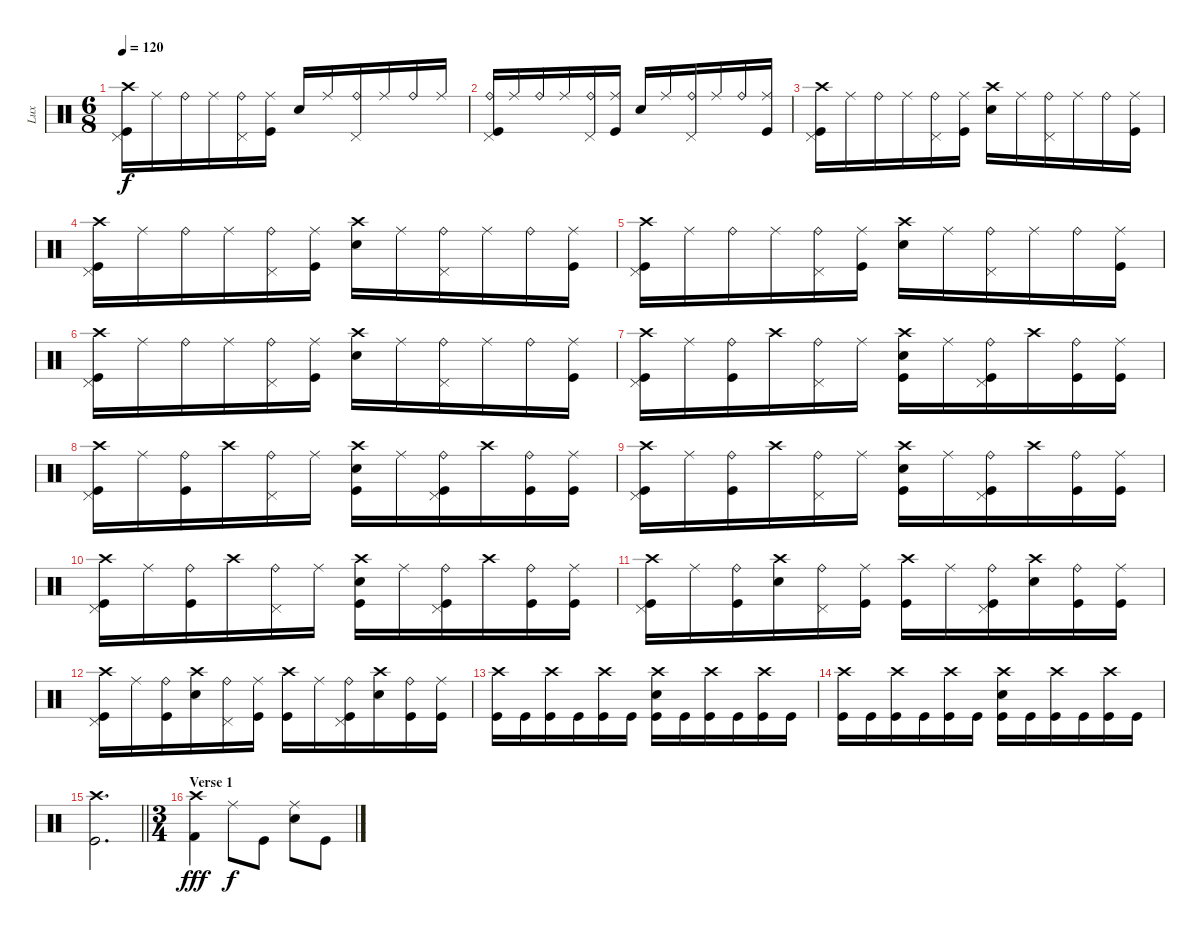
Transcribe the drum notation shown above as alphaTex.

\track ("Lux" "Lux") {instrument percussion}
\staff {score}
\articulation defaults
\ts (6 8)
\tempo 120
\clef neutral
\ks c
("Crash high (hit)" "Pedal Hi-Hat (hit)" "Kick (hit)").16{dy f} "Ride (middle)".16 "Ride (bell)".16 "Ride (middle)".16 ("Ride (bell)" "Pedal Hi-Hat (hit)").16 ("Ride (middle)" "Kick (hit)").16 "Snare (hit) 2".16 "Ride (middle)".16 ("Ride (bell)" "Pedal Hi-Hat (hit)").16 "Ride (middle)".16 "Ride (bell)".16 "Ride (middle)".16 |
("Ride (bell)" "Pedal Hi-Hat (hit)" "Kick (hit)").16 "Ride (middle)".16 "Ride (bell)".16 "Ride (middle)".16 ("Ride (bell)" "Pedal Hi-Hat (hit)").16 ("Ride (middle)" "Kick (hit)").16 "Snare (hit) 2".16 "Ride (middle)".16 ("Ride (bell)" "Pedal Hi-Hat (hit)").16 "Ride (middle)".16 "Ride (bell)".16 ("Ride (middle)" "Kick (hit)").16 |
("Crash high (hit)" "Pedal Hi-Hat (hit)" "Kick (hit)").16 "Ride (middle)".16 "Ride (bell)".16 "Ride (middle)".16 ("Ride (bell)" "Pedal Hi-Hat (hit)").16 ("Ride (middle)" "Kick (hit)").16 ("Crash high (hit)" "Snare (hit) 2").16 "Ride (middle)".16 ("Ride (bell)" "Pedal Hi-Hat (hit)").16 "Ride (middle)".16 "Ride (bell)".16 ("Ride (middle)" "Kick (hit)").16 |
("Crash high (hit)" "Pedal Hi-Hat (hit)" "Kick (hit)").16 "Ride (middle)".16 "Ride (bell)".16 "Ride (middle)".16 ("Ride (bell)" "Pedal Hi-Hat (hit)").16 ("Ride (middle)" "Kick (hit)").16 ("Crash high (hit)" "Snare (hit) 2").16 "Ride (middle)".16 ("Ride (bell)" "Pedal Hi-Hat (hit)").16 "Ride (middle)".16 "Ride (bell)".16 ("Ride (middle)" "Kick (hit)").16 |
("Crash high (hit)" "Pedal Hi-Hat (hit)" "Kick (hit)").16 "Ride (middle)".16 "Ride (bell)".16 "Ride (middle)".16 ("Ride (bell)" "Pedal Hi-Hat (hit)").16 ("Ride (middle)" "Kick (hit)").16 ("Crash high (hit)" "Snare (hit) 2").16 "Ride (middle)".16 ("Ride (bell)" "Pedal Hi-Hat (hit)").16 "Ride (middle)".16 "Ride (bell)".16 ("Ride (middle)" "Kick (hit)").16 |
("Crash high (hit)" "Pedal Hi-Hat (hit)" "Kick (hit)").16 "Ride (middle)".16 "Ride (bell)".16 "Ride (middle)".16 ("Ride (bell)" "Pedal Hi-Hat (hit)").16 ("Ride (middle)" "Kick (hit)").16 ("Crash high (hit)" "Snare (hit) 2").16 "Ride (middle)".16 ("Ride (bell)" "Pedal Hi-Hat (hit)").16 "Ride (middle)".16 "Ride (bell)".16 ("Ride (middle)" "Kick (hit)").16 |
("Crash high (hit)" "Pedal Hi-Hat (hit)" "Kick (hit)").16 "Ride (middle)".16 ("Ride (bell)" "Kick (hit)").16 "Crash high (hit)".16 ("Ride (bell)" "Pedal Hi-Hat (hit)").16 "Ride (middle)".16 ("Crash high (hit)" "Snare (hit) 2" "Kick (hit)").16 "Ride (middle)".16 ("Ride (bell)" "Pedal Hi-Hat (hit)" "Kick (hit)").16 "Crash high (hit)".16 ("Ride (bell)" "Kick (hit)").16 ("Ride (middle)" "Kick (hit)").16 |
("Crash high (hit)" "Pedal Hi-Hat (hit)" "Kick (hit)").16 "Ride (middle)".16 ("Ride (bell)" "Kick (hit)").16 "Crash high (hit)".16 ("Ride (bell)" "Pedal Hi-Hat (hit)").16 "Ride (middle)".16 ("Crash high (hit)" "Snare (hit) 2" "Kick (hit)").16 "Ride (middle)".16 ("Ride (bell)" "Pedal Hi-Hat (hit)" "Kick (hit)").16 "Crash high (hit)".16 ("Ride (bell)" "Kick (hit)").16 ("Ride (middle)" "Kick (hit)").16 |
("Crash high (hit)" "Pedal Hi-Hat (hit)" "Kick (hit)").16 "Ride (middle)".16 ("Ride (bell)" "Kick (hit)").16 "Crash high (hit)".16 ("Ride (bell)" "Pedal Hi-Hat (hit)").16 "Ride (middle)".16 ("Crash high (hit)" "Snare (hit) 2" "Kick (hit)").16 "Ride (middle)".16 ("Ride (bell)" "Pedal Hi-Hat (hit)" "Kick (hit)").16 "Crash high (hit)".16 ("Ride (bell)" "Kick (hit)").16 ("Ride (middle)" "Kick (hit)").16 |
("Crash high (hit)" "Pedal Hi-Hat (hit)" "Kick (hit)").16 "Ride (middle)".16 ("Ride (bell)" "Kick (hit)").16 "Crash high (hit)".16 ("Ride (bell)" "Pedal Hi-Hat (hit)").16 "Ride (middle)".16 ("Crash high (hit)" "Snare (hit) 2" "Kick (hit)").16 "Ride (middle)".16 ("Ride (bell)" "Pedal Hi-Hat (hit)" "Kick (hit)").16 "Crash high (hit)".16 ("Ride (bell)" "Kick (hit)").16 ("Ride (middle)" "Kick (hit)").16 |
("Crash high (hit)" "Pedal Hi-Hat (hit)" "Kick (hit)").16 "Ride (middle)".16 ("Ride (bell)" "Kick (hit)").16 ("Crash high (hit)" "Snare (hit) 2").16 ("Ride (bell)" "Pedal Hi-Hat (hit)").16 ("Ride (middle)" "Kick (hit)").16 ("Crash high (hit)" "Kick (hit)").16 "Ride (middle)".16 ("Ride (bell)" "Pedal Hi-Hat (hit)" "Kick (hit)").16 ("Crash high (hit)" "Snare (hit) 2").16 ("Ride (bell)" "Kick (hit)").16 ("Ride (middle)" "Kick (hit)").16 |
("Crash high (hit)" "Pedal Hi-Hat (hit)" "Kick (hit)").16 "Ride (middle)".16 ("Ride (bell)" "Kick (hit)").16 ("Crash high (hit)" "Snare (hit) 2").16 ("Ride (bell)" "Pedal Hi-Hat (hit)").16 ("Ride (middle)" "Kick (hit)").16 ("Crash high (hit)" "Kick (hit)").16 "Ride (middle)".16 ("Ride (bell)" "Pedal Hi-Hat (hit)" "Kick (hit)").16 ("Crash high (hit)" "Snare (hit) 2").16 ("Ride (bell)" "Kick (hit)").16 ("Ride (middle)" "Kick (hit)").16 |
("Crash high (hit)" "Kick (hit)").16 "Kick (hit)".16 ("Crash high (hit)" "Kick (hit)").16 "Kick (hit)".16 ("Crash high (hit)" "Kick (hit)").16 "Kick (hit)".16 ("Crash high (hit)" "Snare (hit) 2" "Kick (hit)").16 "Kick (hit)".16 ("Crash high (hit)" "Kick (hit)").16 "Kick (hit)".16 ("Crash high (hit)" "Kick (hit)").16 "Kick (hit)".16 |
("Crash high (hit)" "Kick (hit)").16 "Kick (hit)".16 ("Crash high (hit)" "Kick (hit)").16 "Kick (hit)".16 ("Crash high (hit)" "Kick (hit)").16 "Kick (hit)".16 ("Crash high (hit)" "Snare (hit) 2" "Kick (hit)").16 "Kick (hit)".16 ("Crash high (hit)" "Kick (hit)").16 "Kick (hit)".16 ("Crash high (hit)" "Kick (hit)").16 "Kick (hit)".16 |
\barLineRight lightlight
("Crash high (hit)" "Kick (hit)").2{d} |
\ts (3 4)
\section ("" "Verse 1")
("Crash high (hit)" "Kick (hit) 2").4{dy fff} "Ride (middle)".8{dy f} "Kick (hit)".8 ("Ride (middle)" "Snare (hit) 2").8 "Kick (hit)".8
